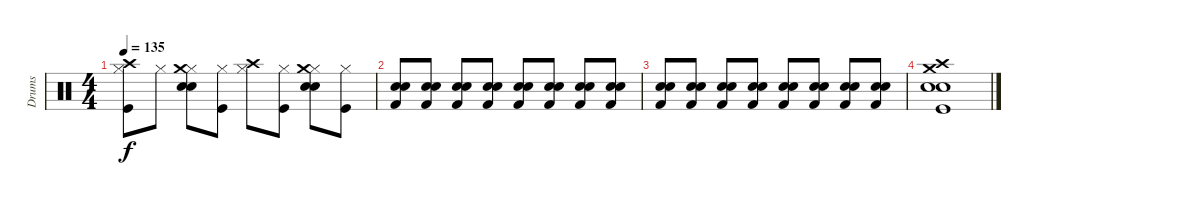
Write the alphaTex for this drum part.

\track ("Drums" "Drums") {instrument percussion}
\staff {score}
\articulation defaults
\ts (4 4)
\tempo 135
\clef neutral
\ks c
("Hi-Hat (closed)" "Crash high (hit)" "Kick (hit)").8{dy f} "Hi-Hat (closed)".8 ("Hi-Hat (closed)" "Crash medium (hit)" "Hand Clap (hit)" "Snare (hit) 2").8 ("Hi-Hat (closed)" "Kick (hit)").8 ("Hi-Hat (closed)" "Crash high (hit)").8 ("Hi-Hat (closed)" "Kick (hit)").8 ("Hi-Hat (closed)" "Crash medium (hit)" "Hand Clap (hit)" "Snare (hit) 2").8 ("Hi-Hat (closed)" "Kick (hit)").8 |
("Electric Snare (hit)" "Snare (hit) 2" "Kick (hit) 2").8 ("Electric Snare (hit)" "Snare (hit) 2" "Kick (hit) 2").8 ("Electric Snare (hit)" "Snare (hit) 2" "Kick (hit) 2").8 ("Electric Snare (hit)" "Snare (hit) 2" "Kick (hit) 2").8 ("Electric Snare (hit)" "Snare (hit) 2" "Kick (hit) 2").8 ("Electric Snare (hit)" "Snare (hit) 2" "Kick (hit) 2").8 ("Electric Snare (hit)" "Snare (hit) 2" "Kick (hit) 2").8 ("Electric Snare (hit)" "Snare (hit) 2" "Kick (hit) 2").8 |
("Electric Snare (hit)" "Snare (hit) 2" "Kick (hit) 2").8 ("Electric Snare (hit)" "Snare (hit) 2" "Kick (hit) 2").8 ("Electric Snare (hit)" "Snare (hit) 2" "Kick (hit) 2").8 ("Electric Snare (hit)" "Snare (hit) 2" "Kick (hit) 2").8 ("Electric Snare (hit)" "Snare (hit) 2" "Kick (hit) 2").8 ("Electric Snare (hit)" "Snare (hit) 2" "Kick (hit) 2").8 ("Electric Snare (hit)" "Snare (hit) 2" "Kick (hit) 2").8 ("Electric Snare (hit)" "Snare (hit) 2" "Kick (hit) 2").8 |
("Crash medium (hit)" "Crash high (hit)" "Electric Snare (hit)" "Snare (hit) 2" "Kick (hit)").1
